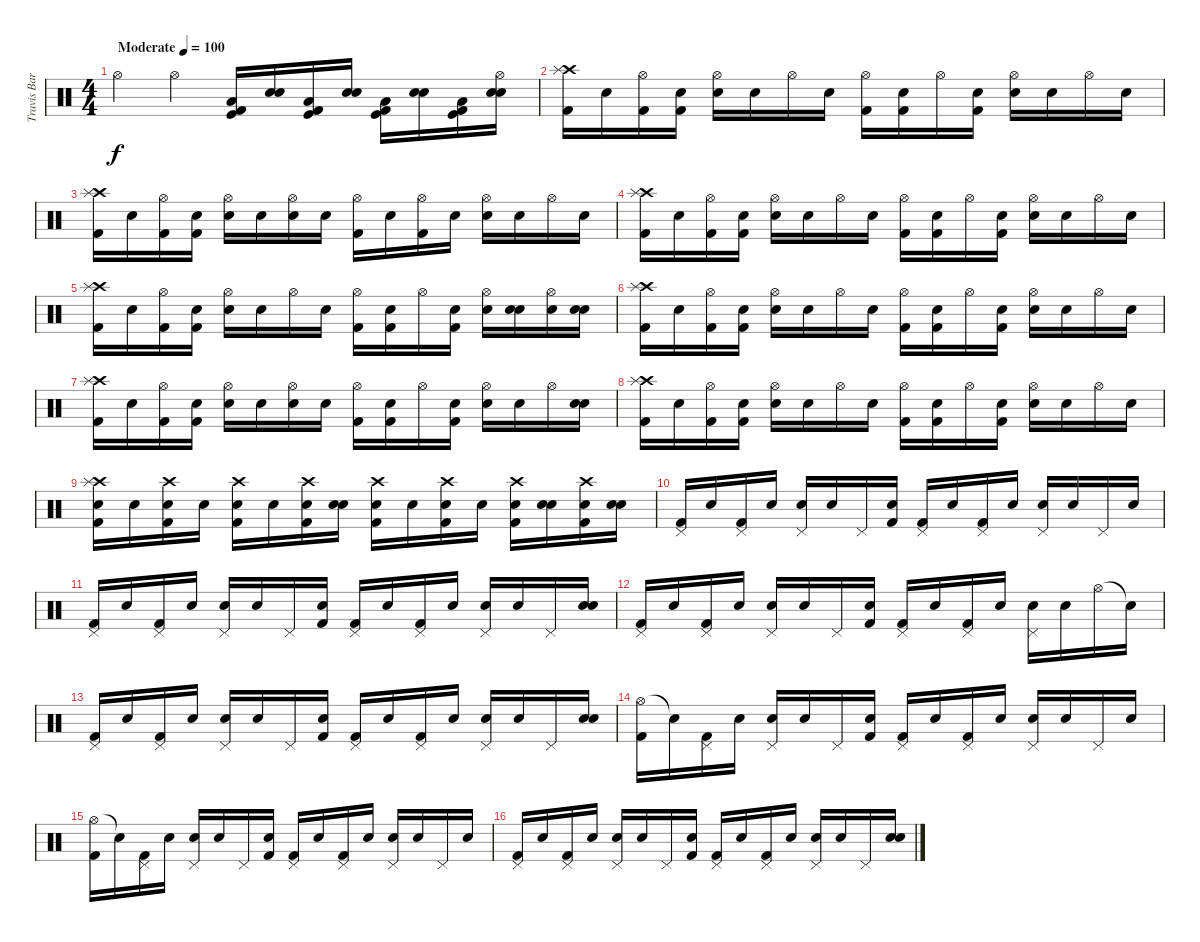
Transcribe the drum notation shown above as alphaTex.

\track ("Travis Barker - Batterie" "Travis Bar") {instrument percussion}
\staff {score}
\articulation defaults
\ts (4 4)
\tempo (100 "Moderate")
\clef neutral
\ks c "Hi-Hat (open)".4{dy f} "Hi-Hat (open)".4
("Low Floor Tom (hit)" "Kick (hit) 2" "Kick (hit)").16 ("Electric Snare (hit)" "Snare (hit) 2").16 ("Low Floor Tom (hit)" "Kick (hit) 2" "Kick (hit)").16 ("Electric Snare (hit)" "Snare (hit) 2").16 ("Low Floor Tom (hit)" "Kick (hit) 2" "Kick (hit)").16 ("Electric Snare (hit)" "Snare (hit) 2").16 ("Low Floor Tom (hit)" "Kick (hit) 2" "Kick (hit)").16 ("Electric Snare (hit)" "Snare (hit) 2" "Hi-Hat (open)").16 |
("Crash high (hit)" "Splash (hit)" "Kick (hit) 2").16 "Snare (hit)"{x}.16 ("Hi-Hat (open)" "Kick (hit) 2").16 ("Snare (hit)"{x} "Kick (hit) 2").16 ("Hi-Hat (open)" "Electric Snare (hit)").16 "Snare (hit)"{x}.16 "Hi-Hat (open)".16 "Snare (hit)"{x}.16 ("Hi-Hat (open)" "Kick (hit) 2").16 ("Snare (hit)"{x} "Kick (hit) 2").16 "Hi-Hat (open)".16 ("Snare (hit)"{x} "Kick (hit) 2").16 ("Hi-Hat (open)" "Electric Snare (hit)").16 "Snare (hit)"{x}.16 "Hi-Hat (open)".16 "Snare (hit)"{x}.16 |
("Crash high (hit)" "Splash (hit)" "Kick (hit) 2").16 "Snare (hit)"{x}.16 ("Hi-Hat (open)" "Kick (hit) 2").16 ("Snare (hit)"{x} "Kick (hit) 2").16 ("Hi-Hat (open)" "Electric Snare (hit)").16 "Snare (hit)"{x}.16 ("Hi-Hat (open)" "Electric Snare (hit)").16 "Snare (hit)"{x}.16 ("Hi-Hat (open)" "Kick (hit) 2").16 "Snare (hit)"{x}.16 ("Hi-Hat (open)" "Kick (hit) 2").16 "Snare (hit)"{x}.16 ("Hi-Hat (open)" "Electric Snare (hit)").16 "Snare (hit)"{x}.16 "Hi-Hat (open)".16 "Snare (hit)"{x}.16 |
("Crash high (hit)" "Splash (hit)" "Kick (hit) 2").16 "Snare (hit)"{x}.16 ("Hi-Hat (open)" "Kick (hit) 2").16 ("Snare (hit)"{x} "Kick (hit) 2").16 ("Hi-Hat (open)" "Electric Snare (hit)").16 "Snare (hit)"{x}.16 "Hi-Hat (open)".16 "Snare (hit)"{x}.16 ("Hi-Hat (open)" "Kick (hit) 2").16 ("Snare (hit)"{x} "Kick (hit) 2").16 "Hi-Hat (open)".16 ("Snare (hit)"{x} "Kick (hit) 2").16 ("Hi-Hat (open)" "Electric Snare (hit)").16 "Snare (hit)"{x}.16 "Hi-Hat (open)".16 "Snare (hit)"{x}.16 |
("Crash high (hit)" "Splash (hit)" "Kick (hit) 2").16 "Snare (hit)"{x}.16 ("Hi-Hat (open)" "Kick (hit) 2").16 ("Snare (hit)"{x} "Kick (hit) 2").16 ("Hi-Hat (open)" "Electric Snare (hit)").16 "Snare (hit)"{x}.16 "Hi-Hat (open)".16 "Snare (hit)"{x}.16 ("Hi-Hat (open)" "Kick (hit) 2").16 ("Snare (hit)"{x} "Kick (hit) 2").16 "Hi-Hat (open)".16 ("Snare (hit)"{x} "Kick (hit) 2").16 ("Hi-Hat (open)" "Electric Snare (hit)").16 ("Snare (hit)"{x} "Electric Snare (hit)").16 ("Hi-Hat (open)" "Electric Snare (hit)").16 ("Snare (hit)"{x} "Electric Snare (hit)").16 |
("Crash high (hit)" "Splash (hit)" "Kick (hit) 2").16 "Snare (hit)"{x}.16 ("Hi-Hat (open)" "Kick (hit) 2").16 ("Snare (hit)"{x} "Kick (hit) 2").16 ("Hi-Hat (open)" "Electric Snare (hit)").16 "Snare (hit)"{x}.16 "Hi-Hat (open)".16 "Snare (hit)"{x}.16 ("Hi-Hat (open)" "Kick (hit) 2").16 ("Snare (hit)"{x} "Kick (hit) 2").16 "Hi-Hat (open)".16 ("Snare (hit)"{x} "Kick (hit) 2").16 ("Hi-Hat (open)" "Electric Snare (hit)").16 "Snare (hit)"{x}.16 "Hi-Hat (open)".16 "Snare (hit)"{x}.16 |
("Crash high (hit)" "Splash (hit)" "Kick (hit) 2").16 "Snare (hit)"{x}.16 ("Hi-Hat (open)" "Kick (hit) 2").16 ("Snare (hit)"{x} "Kick (hit) 2").16 ("Hi-Hat (open)" "Electric Snare (hit)").16 "Snare (hit)"{x}.16 ("Hi-Hat (open)" "Electric Snare (hit)").16 "Snare (hit)"{x}.16 ("Hi-Hat (open)" "Kick (hit) 2").16 ("Snare (hit)"{x} "Kick (hit) 2").16 "Hi-Hat (open)".16 ("Snare (hit)"{x} "Kick (hit) 2").16 ("Hi-Hat (open)" "Electric Snare (hit)").16 "Snare (hit)"{x}.16 "Hi-Hat (open)".16 ("Snare (hit)"{x} "Electric Snare (hit)").16 |
("Crash high (hit)" "Splash (hit)" "Kick (hit) 2").16 "Snare (hit)"{x}.16 ("Hi-Hat (open)" "Kick (hit) 2").16 ("Snare (hit)"{x} "Kick (hit) 2").16 ("Hi-Hat (open)" "Electric Snare (hit)").16 "Snare (hit)"{x}.16 "Hi-Hat (open)".16 "Snare (hit)"{x}.16 ("Hi-Hat (open)" "Kick (hit) 2").16 ("Snare (hit)"{x} "Kick (hit) 2").16 "Hi-Hat (open)".16 ("Snare (hit)"{x} "Kick (hit) 2").16 ("Hi-Hat (open)" "Electric Snare (hit)").16 "Snare (hit)"{x}.16 "Hi-Hat (open)".16 "Snare (hit)"{x}.16 |
("Crash high (hit)" "Splash (hit)" "Electric Snare (hit)" "Kick (hit) 2").16 "Snare (hit)"{x}.16 ("Crash high (hit)" "Electric Snare (hit)" "Kick (hit) 2").16 "Snare (hit)"{x}.16 ("Crash high (hit)" "Electric Snare (hit)" "Kick (hit) 2").16 "Snare (hit)"{x}.16 ("Crash high (hit)" "Electric Snare (hit)" "Kick (hit) 2").16 ("Snare (hit)"{x} "Electric Snare (hit)").16 ("Crash high (hit)" "Electric Snare (hit)" "Kick (hit) 2").16 "Snare (hit)"{x}.16 ("Crash high (hit)" "Electric Snare (hit)" "Kick (hit) 2").16 "Snare (hit)"{x}.16 ("Crash high (hit)" "Electric Snare (hit)" "Kick (hit) 2").16 ("Snare (hit)"{x} "Electric Snare (hit)").16 ("Crash high (hit)" "Electric Snare (hit)" "Kick (hit) 2").16 ("Snare (hit)"{x} "Electric Snare (hit)").16 |
("Pedal Hi-Hat (hit)" "Kick (hit) 2").16 "Snare (hit)"{x}.16 ("Pedal Hi-Hat (hit)" "Kick (hit) 2").16 "Snare (hit)"{x}.16 ("Pedal Hi-Hat (hit)" "Electric Snare (hit)").16 "Snare (hit)"{x}.16 "Pedal Hi-Hat (hit)".16 ("Snare (hit)"{x} "Kick (hit) 2").16 ("Pedal Hi-Hat (hit)" "Kick (hit) 2").16 "Snare (hit)"{x}.16 ("Pedal Hi-Hat (hit)" "Kick (hit) 2").16 "Snare (hit)"{x}.16 ("Pedal Hi-Hat (hit)" "Electric Snare (hit)").16 "Snare (hit)"{x}.16 "Pedal Hi-Hat (hit)".16 "Snare (hit)"{x}.16 |
("Pedal Hi-Hat (hit)" "Kick (hit) 2").16 "Snare (hit)"{x}.16 ("Pedal Hi-Hat (hit)" "Kick (hit) 2").16 "Snare (hit)"{x}.16 ("Pedal Hi-Hat (hit)" "Electric Snare (hit)").16 "Snare (hit)"{x}.16 "Pedal Hi-Hat (hit)".16 ("Snare (hit)"{x} "Kick (hit) 2").16 ("Pedal Hi-Hat (hit)" "Kick (hit) 2").16 "Snare (hit)"{x}.16 ("Pedal Hi-Hat (hit)" "Kick (hit) 2").16 "Snare (hit)"{x}.16 ("Pedal Hi-Hat (hit)" "Electric Snare (hit)").16 "Snare (hit)"{x}.16 "Pedal Hi-Hat (hit)".16 ("Snare (hit)"{x} "Electric Snare (hit)").16 |
("Pedal Hi-Hat (hit)" "Kick (hit) 2").16 "Snare (hit)"{x}.16 ("Pedal Hi-Hat (hit)" "Kick (hit) 2").16 "Snare (hit)"{x}.16 ("Pedal Hi-Hat (hit)" "Electric Snare (hit)").16 "Snare (hit)"{x}.16 "Pedal Hi-Hat (hit)".16 ("Snare (hit)"{x} "Kick (hit) 2").16 ("Pedal Hi-Hat (hit)" "Kick (hit) 2").16 "Snare (hit)"{x}.16 ("Pedal Hi-Hat (hit)" "Kick (hit) 2").16 "Snare (hit)"{x}.16 ("Pedal Hi-Hat (hit)" "Electric Snare (hit)").16 "Snare (hit)"{x}.16 "Hi-Hat (open)".16 "Snare (hit)"{t}.16 |
("Pedal Hi-Hat (hit)" "Kick (hit) 2").16 "Snare (hit)"{x}.16 ("Pedal Hi-Hat (hit)" "Kick (hit) 2").16 "Snare (hit)"{x}.16 ("Pedal Hi-Hat (hit)" "Electric Snare (hit)").16 "Snare (hit)"{x}.16 "Pedal Hi-Hat (hit)".16 ("Snare (hit)"{x} "Kick (hit) 2").16 ("Pedal Hi-Hat (hit)" "Kick (hit) 2").16 "Snare (hit)"{x}.16 ("Pedal Hi-Hat (hit)" "Kick (hit) 2").16 "Snare (hit)"{x}.16 ("Pedal Hi-Hat (hit)" "Electric Snare (hit)").16 "Snare (hit)"{x}.16 "Pedal Hi-Hat (hit)".16 ("Snare (hit)"{x} "Electric Snare (hit)").16 |
("Hi-Hat (open)" "Kick (hit) 2").16 "Snare (hit)"{t}.16 ("Pedal Hi-Hat (hit)" "Kick (hit) 2").16 "Snare (hit)"{x}.16 ("Pedal Hi-Hat (hit)" "Electric Snare (hit)").16 "Snare (hit)"{x}.16 "Pedal Hi-Hat (hit)".16 ("Snare (hit)"{x} "Kick (hit) 2").16 ("Pedal Hi-Hat (hit)" "Kick (hit) 2").16 "Snare (hit)"{x}.16 ("Pedal Hi-Hat (hit)" "Kick (hit) 2").16 "Snare (hit)"{x}.16 ("Pedal Hi-Hat (hit)" "Electric Snare (hit)").16 "Snare (hit)"{x}.16 "Pedal Hi-Hat (hit)".16 "Snare (hit)"{x}.16 |
("Hi-Hat (open)" "Kick (hit) 2").16 "Snare (hit)"{t}.16 ("Pedal Hi-Hat (hit)" "Kick (hit) 2").16 "Snare (hit)"{x}.16 ("Pedal Hi-Hat (hit)" "Electric Snare (hit)").16 "Snare (hit)"{x}.16 "Pedal Hi-Hat (hit)".16 ("Snare (hit)"{x} "Kick (hit) 2").16 ("Pedal Hi-Hat (hit)" "Kick (hit) 2").16 "Snare (hit)"{x}.16 ("Pedal Hi-Hat (hit)" "Kick (hit) 2").16 "Snare (hit)"{x}.16 ("Pedal Hi-Hat (hit)" "Electric Snare (hit)").16 "Snare (hit)"{x}.16 "Pedal Hi-Hat (hit)".16 "Snare (hit)"{x}.16 |
("Pedal Hi-Hat (hit)" "Kick (hit) 2").16 "Snare (hit)"{x}.16 ("Pedal Hi-Hat (hit)" "Kick (hit) 2").16 "Snare (hit)"{x}.16 ("Pedal Hi-Hat (hit)" "Electric Snare (hit)").16 "Snare (hit)"{x}.16 "Pedal Hi-Hat (hit)".16 ("Snare (hit)"{x} "Kick (hit) 2").16 ("Pedal Hi-Hat (hit)" "Kick (hit) 2").16 "Snare (hit)"{x}.16 ("Pedal Hi-Hat (hit)" "Kick (hit) 2").16 "Snare (hit)"{x}.16 ("Pedal Hi-Hat (hit)" "Electric Snare (hit)").16 "Snare (hit)"{x}.16 "Pedal Hi-Hat (hit)".16 ("Snare (hit)"{x} "Electric Snare (hit)").16
